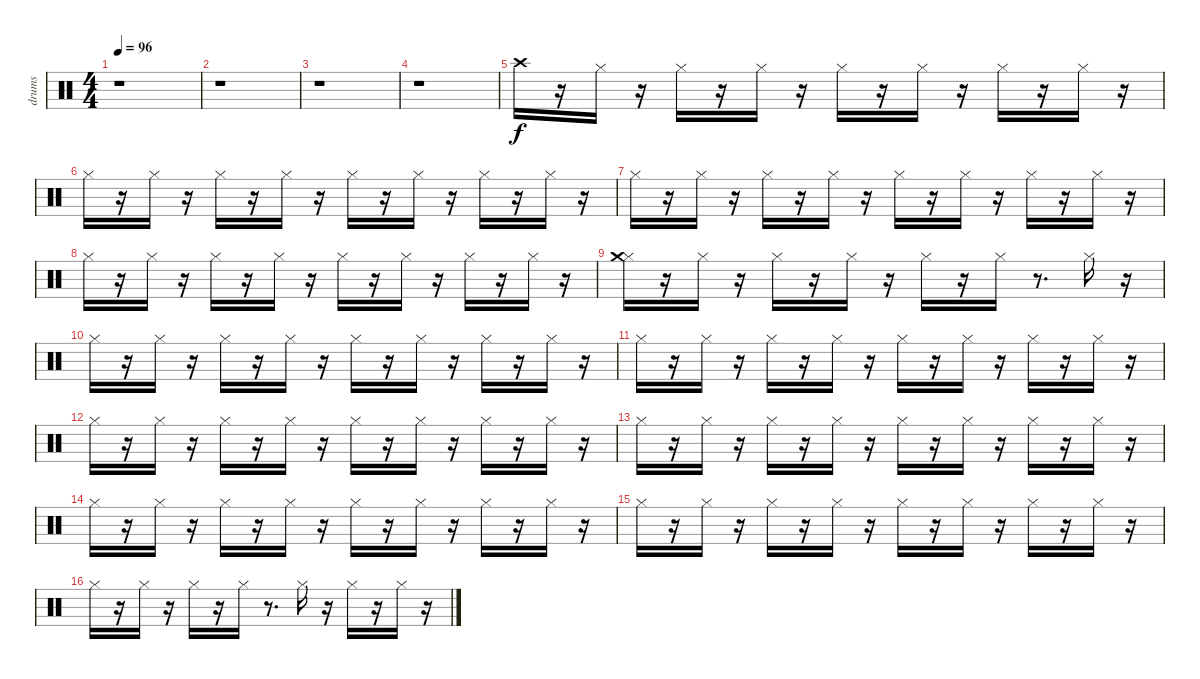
\track ("drums" "drums") {instrument percussion}
\staff {score}
\articulation defaults
\ts (4 4)
\tempo 96
\clef neutral
\ks c
r.1{dy f} |
r.1 |
r.1 |
r.1 |
"Crash high (hit)".16 r.16 "Hi-Hat (closed)".16 r.16 "Hi-Hat (closed)".16 r.16 "Hi-Hat (closed)".16 r.16 "Hi-Hat (closed)".16 r.16 "Hi-Hat (closed)".16 r.16 "Hi-Hat (closed)".16 r.16 "Hi-Hat (closed)".16 r.16 |
"Hi-Hat (closed)".16 r.16 "Hi-Hat (closed)".16 r.16 "Hi-Hat (closed)".16 r.16 "Hi-Hat (closed)".16 r.16 "Hi-Hat (closed)".16 r.16 "Hi-Hat (closed)".16 r.16 "Hi-Hat (closed)".16 r.16 "Hi-Hat (closed)".16 r.16 |
"Hi-Hat (closed)".16 r.16 "Hi-Hat (closed)".16 r.16 "Hi-Hat (closed)".16 r.16 "Hi-Hat (closed)".16 r.16 "Hi-Hat (closed)".16 r.16 "Hi-Hat (closed)".16 r.16 "Hi-Hat (closed)".16 r.16 "Hi-Hat (closed)".16 r.16 |
"Hi-Hat (closed)".16 r.16 "Hi-Hat (closed)".16 r.16 "Hi-Hat (closed)".16 r.16 "Hi-Hat (closed)".16 r.16 "Hi-Hat (closed)".16 r.16 "Hi-Hat (closed)".16 r.16 "Hi-Hat (closed)".16 r.16 "Hi-Hat (closed)".16 r.16 |
("Hi-Hat (closed)" "Crash medium (hit)").16 r.16 "Hi-Hat (closed)".16 r.16 "Hi-Hat (closed)".16 r.16 "Hi-Hat (closed)".16 r.16 "Hi-Hat (closed)".16 r.16 "Hi-Hat (closed)".16 r.8{d} "Hi-Hat (closed)".16 r.16 |
"Hi-Hat (closed)".16 r.16 "Hi-Hat (closed)".16 r.16 "Hi-Hat (closed)".16 r.16 "Hi-Hat (closed)".16 r.16 "Hi-Hat (closed)".16 r.16 "Hi-Hat (closed)".16 r.16 "Hi-Hat (closed)".16 r.16 "Hi-Hat (closed)".16 r.16 |
"Hi-Hat (closed)".16 r.16 "Hi-Hat (closed)".16 r.16 "Hi-Hat (closed)".16 r.16 "Hi-Hat (closed)".16 r.16 "Hi-Hat (closed)".16 r.16 "Hi-Hat (closed)".16 r.16 "Hi-Hat (closed)".16 r.16 "Hi-Hat (closed)".16 r.16 |
"Hi-Hat (closed)".16 r.16 "Hi-Hat (closed)".16 r.16 "Hi-Hat (closed)".16 r.16 "Hi-Hat (closed)".16 r.16 "Hi-Hat (closed)".16 r.16 "Hi-Hat (closed)".16 r.16 "Hi-Hat (closed)".16 r.16 "Hi-Hat (closed)".16 r.16 |
"Hi-Hat (closed)".16 r.16 "Hi-Hat (closed)".16 r.16 "Hi-Hat (closed)".16 r.16 "Hi-Hat (closed)".16 r.16 "Hi-Hat (closed)".16 r.16 "Hi-Hat (closed)".16 r.16 "Hi-Hat (closed)".16 r.16 "Hi-Hat (closed)".16 r.16 |
"Hi-Hat (closed)".16 r.16 "Hi-Hat (closed)".16 r.16 "Hi-Hat (closed)".16 r.16 "Hi-Hat (closed)".16 r.16 "Hi-Hat (closed)".16 r.16 "Hi-Hat (closed)".16 r.16 "Hi-Hat (closed)".16 r.16 "Hi-Hat (closed)".16 r.16 |
"Hi-Hat (closed)".16 r.16 "Hi-Hat (closed)".16 r.16 "Hi-Hat (closed)".16 r.16 "Hi-Hat (closed)".16 r.16 "Hi-Hat (closed)".16 r.16 "Hi-Hat (closed)".16 r.16 "Hi-Hat (closed)".16 r.16 "Hi-Hat (closed)".16 r.16 |
"Hi-Hat (closed)".16 r.16 "Hi-Hat (closed)".16 r.16 "Hi-Hat (closed)".16 r.16 "Hi-Hat (closed)".16 r.8{d} "Hi-Hat (closed)".16 r.16 "Hi-Hat (closed)".16 r.16 "Hi-Hat (closed)".16 r.16
